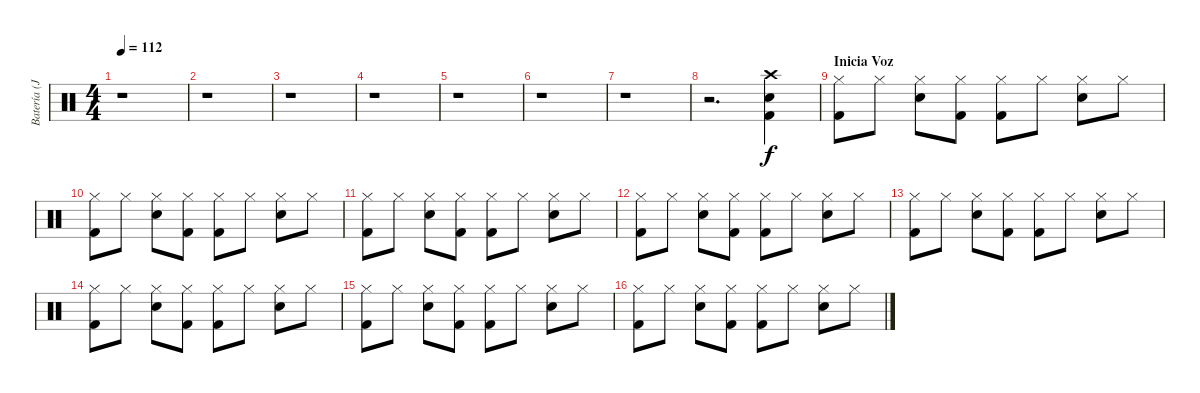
\track ("Batería (Javi Molina)" "Batería (J") {instrument percussion}
\staff {score}
\articulation defaults
\ts (4 4)
\tempo 112
\clef neutral
\ks c
r.1{dy f} |
r.1 |
r.1 |
r.1 |
r.1 |
r.1 |
r.1 |
r.2{d} ("Crash high (hit)" "Kick (hit) 2" "Electric Snare (hit)").4 |
\section ("" "Inicia Voz")
("Hi-Hat (closed)" "Kick (hit) 2").8 "Hi-Hat (closed)".8 ("Hi-Hat (closed)" "Electric Snare (hit)").8 ("Hi-Hat (closed)" "Kick (hit) 2").8 ("Hi-Hat (closed)" "Kick (hit) 2").8 "Hi-Hat (closed)".8 ("Hi-Hat (closed)" "Electric Snare (hit)").8 "Hi-Hat (closed)".8 |
("Hi-Hat (closed)" "Kick (hit) 2").8 "Hi-Hat (closed)".8 ("Hi-Hat (closed)" "Electric Snare (hit)").8 ("Hi-Hat (closed)" "Kick (hit) 2").8 ("Hi-Hat (closed)" "Kick (hit) 2").8 "Hi-Hat (closed)".8 ("Hi-Hat (closed)" "Electric Snare (hit)").8 "Hi-Hat (closed)".8 |
("Hi-Hat (closed)" "Kick (hit) 2").8 "Hi-Hat (closed)".8 ("Hi-Hat (closed)" "Electric Snare (hit)").8 ("Hi-Hat (closed)" "Kick (hit) 2").8 ("Hi-Hat (closed)" "Kick (hit) 2").8 "Hi-Hat (closed)".8 ("Hi-Hat (closed)" "Electric Snare (hit)").8 "Hi-Hat (closed)".8 |
("Hi-Hat (closed)" "Kick (hit) 2").8 "Hi-Hat (closed)".8 ("Hi-Hat (closed)" "Electric Snare (hit)").8 ("Hi-Hat (closed)" "Kick (hit) 2").8 ("Hi-Hat (closed)" "Kick (hit) 2").8 "Hi-Hat (closed)".8 ("Hi-Hat (closed)" "Electric Snare (hit)").8 "Hi-Hat (closed)".8 |
("Hi-Hat (closed)" "Kick (hit) 2").8 "Hi-Hat (closed)".8 ("Hi-Hat (closed)" "Electric Snare (hit)").8 ("Hi-Hat (closed)" "Kick (hit) 2").8 ("Hi-Hat (closed)" "Kick (hit) 2").8 "Hi-Hat (closed)".8 ("Hi-Hat (closed)" "Electric Snare (hit)").8 "Hi-Hat (closed)".8 |
("Hi-Hat (closed)" "Kick (hit) 2").8 "Hi-Hat (closed)".8 ("Hi-Hat (closed)" "Electric Snare (hit)").8 ("Hi-Hat (closed)" "Kick (hit) 2").8 ("Hi-Hat (closed)" "Kick (hit) 2").8 "Hi-Hat (closed)".8 ("Hi-Hat (closed)" "Electric Snare (hit)").8 "Hi-Hat (closed)".8 |
("Hi-Hat (closed)" "Kick (hit) 2").8 "Hi-Hat (closed)".8 ("Hi-Hat (closed)" "Electric Snare (hit)").8 ("Hi-Hat (closed)" "Kick (hit) 2").8 ("Hi-Hat (closed)" "Kick (hit) 2").8 "Hi-Hat (closed)".8 ("Hi-Hat (closed)" "Electric Snare (hit)").8 "Hi-Hat (closed)".8 |
("Hi-Hat (closed)" "Kick (hit) 2").8 "Hi-Hat (closed)".8 ("Hi-Hat (closed)" "Electric Snare (hit)").8 ("Hi-Hat (closed)" "Kick (hit) 2").8 ("Hi-Hat (closed)" "Kick (hit) 2").8 "Hi-Hat (closed)".8 ("Hi-Hat (closed)" "Electric Snare (hit)").8 "Hi-Hat (closed)".8
